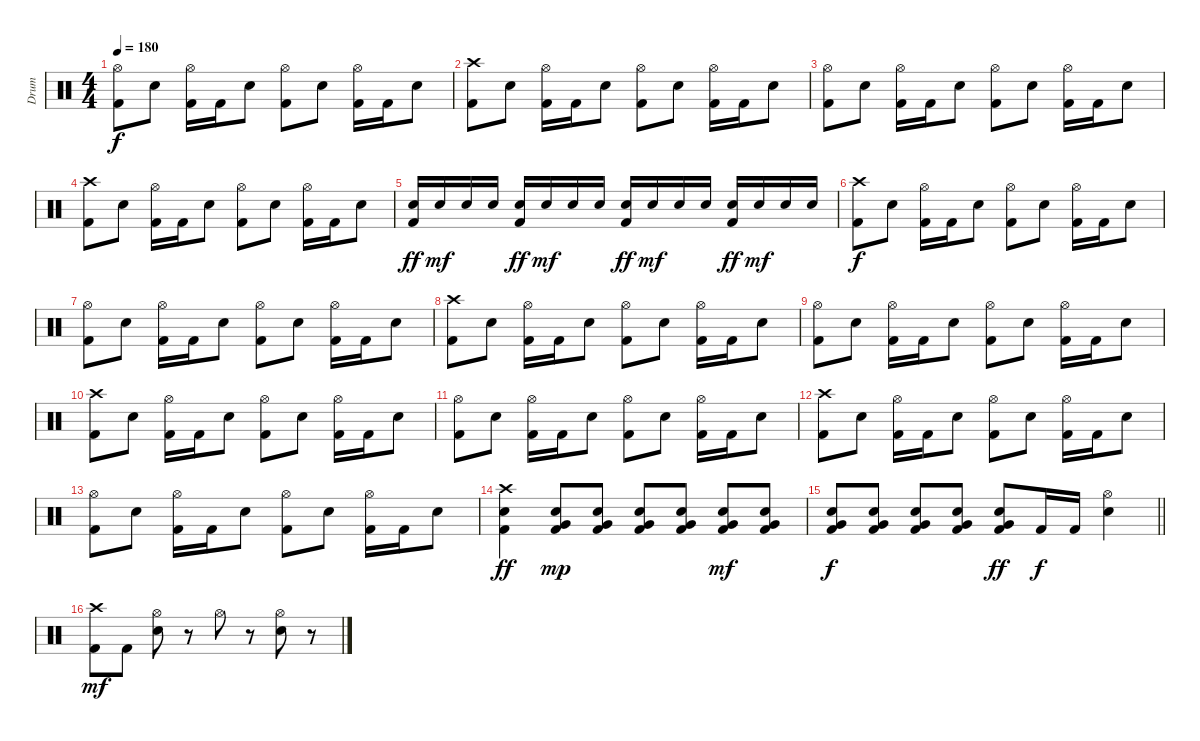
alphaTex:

\track ("Drum" "Drum") {instrument percussion}
\staff {score}
\articulation defaults
\ts (4 4)
\tempo 180
\clef neutral
\ks c
("Hi-Hat (open)" "Kick (hit) 2").8{dy f} "Snare (hit) 2".8 ("Hi-Hat (open)" "Kick (hit) 2").16 "Kick (hit) 2".16 "Snare (hit) 2".8 ("Hi-Hat (open)" "Kick (hit) 2").8 "Snare (hit) 2".8 ("Hi-Hat (open)" "Kick (hit) 2").16 "Kick (hit) 2".16 "Snare (hit) 2".8 |
("Crash high (hit)" "Kick (hit) 2").8 "Snare (hit) 2".8 ("Hi-Hat (open)" "Kick (hit) 2").16 "Kick (hit) 2".16 "Snare (hit) 2".8 ("Hi-Hat (open)" "Kick (hit) 2").8 "Snare (hit) 2".8 ("Hi-Hat (open)" "Kick (hit) 2").16 "Kick (hit) 2".16 "Snare (hit) 2".8 |
("Hi-Hat (open)" "Kick (hit) 2").8 "Snare (hit) 2".8 ("Hi-Hat (open)" "Kick (hit) 2").16 "Kick (hit) 2".16 "Snare (hit) 2".8 ("Hi-Hat (open)" "Kick (hit) 2").8 "Snare (hit) 2".8 ("Hi-Hat (open)" "Kick (hit) 2").16 "Kick (hit) 2".16 "Snare (hit) 2".8 |
("Crash high (hit)" "Kick (hit) 2").8 "Snare (hit) 2".8 ("Hi-Hat (open)" "Kick (hit) 2").16 "Kick (hit) 2".16 "Snare (hit) 2".8 ("Hi-Hat (open)" "Kick (hit) 2").8 "Snare (hit) 2".8 ("Hi-Hat (open)" "Kick (hit) 2").16 "Kick (hit) 2".16 "Snare (hit) 2".8 |
("Snare (hit) 2" "Kick (hit) 2").16{dy ff} "Snare (hit) 2".16{dy mf} "Snare (hit) 2".16 "Snare (hit) 2".16 ("Snare (hit) 2" "Kick (hit) 2").16{dy ff} "Snare (hit) 2".16{dy mf} "Snare (hit) 2".16 "Snare (hit) 2".16 ("Snare (hit) 2" "Kick (hit) 2").16{dy ff} "Snare (hit) 2".16{dy mf} "Snare (hit) 2".16 "Snare (hit) 2".16 ("Snare (hit) 2" "Kick (hit) 2").16{dy ff} "Snare (hit) 2".16{dy mf} "Snare (hit) 2".16 "Snare (hit) 2".16 |
("Crash high (hit)" "Kick (hit) 2").8{dy f} "Snare (hit) 2".8 ("Hi-Hat (open)" "Kick (hit) 2").16 "Kick (hit) 2".16 "Snare (hit) 2".8 ("Hi-Hat (open)" "Kick (hit) 2").8 "Snare (hit) 2".8 ("Hi-Hat (open)" "Kick (hit) 2").16 "Kick (hit) 2".16 "Snare (hit) 2".8 |
("Hi-Hat (open)" "Kick (hit) 2").8 "Snare (hit) 2".8 ("Hi-Hat (open)" "Kick (hit) 2").16 "Kick (hit) 2".16 "Snare (hit) 2".8 ("Hi-Hat (open)" "Kick (hit) 2").8 "Snare (hit) 2".8 ("Hi-Hat (open)" "Kick (hit) 2").16 "Kick (hit) 2".16 "Snare (hit) 2".8 |
("Crash high (hit)" "Kick (hit) 2").8 "Snare (hit) 2".8 ("Hi-Hat (open)" "Kick (hit) 2").16 "Kick (hit) 2".16 "Snare (hit) 2".8 ("Hi-Hat (open)" "Kick (hit) 2").8 "Snare (hit) 2".8 ("Hi-Hat (open)" "Kick (hit) 2").16 "Kick (hit) 2".16 "Snare (hit) 2".8 |
("Hi-Hat (open)" "Kick (hit) 2").8 "Snare (hit) 2".8 ("Hi-Hat (open)" "Kick (hit) 2").16 "Kick (hit) 2".16 "Snare (hit) 2".8 ("Hi-Hat (open)" "Kick (hit) 2").8 "Snare (hit) 2".8 ("Hi-Hat (open)" "Kick (hit) 2").16 "Kick (hit) 2".16 "Snare (hit) 2".8 |
("Crash high (hit)" "Kick (hit) 2").8 "Snare (hit) 2".8 ("Hi-Hat (open)" "Kick (hit) 2").16 "Kick (hit) 2".16 "Snare (hit) 2".8 ("Hi-Hat (open)" "Kick (hit) 2").8 "Snare (hit) 2".8 ("Hi-Hat (open)" "Kick (hit) 2").16 "Kick (hit) 2".16 "Snare (hit) 2".8 |
("Hi-Hat (open)" "Kick (hit) 2").8 "Snare (hit) 2".8 ("Hi-Hat (open)" "Kick (hit) 2").16 "Kick (hit) 2".16 "Snare (hit) 2".8 ("Hi-Hat (open)" "Kick (hit) 2").8 "Snare (hit) 2".8 ("Hi-Hat (open)" "Kick (hit) 2").16 "Kick (hit) 2".16 "Snare (hit) 2".8 |
("Crash high (hit)" "Kick (hit) 2").8 "Snare (hit) 2".8 ("Hi-Hat (open)" "Kick (hit) 2").16 "Kick (hit) 2".16 "Snare (hit) 2".8 ("Hi-Hat (open)" "Kick (hit) 2").8 "Snare (hit) 2".8 ("Hi-Hat (open)" "Kick (hit) 2").16 "Kick (hit) 2".16 "Snare (hit) 2".8 |
("Hi-Hat (open)" "Kick (hit) 2").8 "Snare (hit) 2".8 ("Hi-Hat (open)" "Kick (hit) 2").16 "Kick (hit) 2".16 "Snare (hit) 2".8 ("Hi-Hat (open)" "Kick (hit) 2").8 "Snare (hit) 2".8 ("Hi-Hat (open)" "Kick (hit) 2").16 "Kick (hit) 2".16 "Snare (hit) 2".8 |
("Crash high (hit)" "Snare (hit) 2" "Kick (hit) 2").4{dy ff} ("Very Low Tom (hit)" "Snare (hit) 2" "Kick (hit) 2").8{dy mp} ("Very Low Tom (hit)" "Snare (hit) 2" "Kick (hit) 2").8 ("Very Low Tom (hit)" "Snare (hit) 2" "Kick (hit) 2").8 ("Very Low Tom (hit)" "Snare (hit) 2" "Kick (hit) 2").8 ("Very Low Tom (hit)" "Snare (hit) 2" "Kick (hit) 2").8{dy mf} ("Very Low Tom (hit)" "Snare (hit) 2" "Kick (hit) 2").8 |
\barLineRight lightlight
("Very Low Tom (hit)" "Snare (hit) 2" "Kick (hit) 2").8{dy f} ("Very Low Tom (hit)" "Snare (hit) 2" "Kick (hit) 2").8 ("Very Low Tom (hit)" "Snare (hit) 2" "Kick (hit) 2").8 ("Very Low Tom (hit)" "Snare (hit) 2" "Kick (hit) 2").8 ("Very Low Tom (hit)" "Snare (hit) 2" "Kick (hit) 2").8{dy ff} "Kick (hit) 2".16{dy f} "Kick (hit) 2".16 ("Hi-Hat (open)" "Snare (hit) 2").4 |
("Crash high (hit)" "Kick (hit) 2").8{dy mf} "Kick (hit) 2".8 ("Hi-Hat (open)" "Snare (hit) 2").8 r.8 "Hi-Hat (open)".8 r.8 ("Hi-Hat (open)" "Snare (hit) 2").8 r.8
